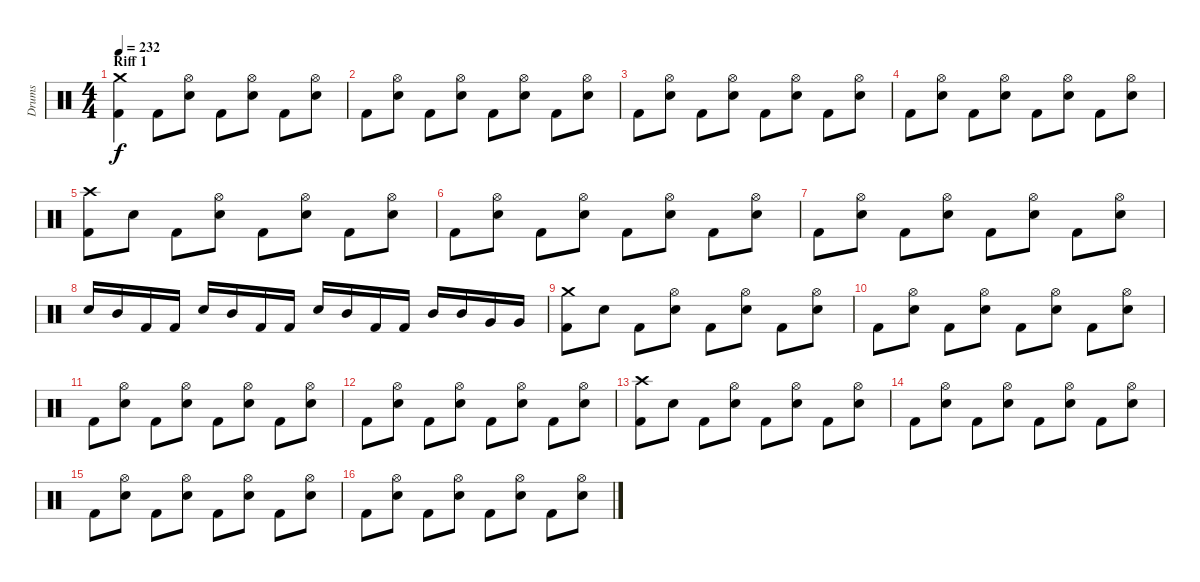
\track ("Drums" "Drums") {instrument percussion}
\staff {score}
\articulation defaults
\ts (4 4)
\section ("" "Riff 1")
\tempo 232
\clef neutral
\ks c
("Kick (hit) 2" "Crash medium (hit)").4{dy f} "Kick (hit) 2".8 ("Electric Snare (hit)" "Hi-Hat (open)").8 "Kick (hit) 2".8 ("Electric Snare (hit)" "Hi-Hat (open)").8 "Kick (hit) 2".8 ("Electric Snare (hit)" "Hi-Hat (open)").8 |
"Kick (hit) 2".8 ("Electric Snare (hit)" "Hi-Hat (open)").8 "Kick (hit) 2".8 ("Electric Snare (hit)" "Hi-Hat (open)").8 "Kick (hit) 2".8 ("Electric Snare (hit)" "Hi-Hat (open)").8 "Kick (hit) 2".8 ("Electric Snare (hit)" "Hi-Hat (open)").8 |
"Kick (hit) 2".8 ("Electric Snare (hit)" "Hi-Hat (open)").8 "Kick (hit) 2".8 ("Electric Snare (hit)" "Hi-Hat (open)").8 "Kick (hit) 2".8 ("Electric Snare (hit)" "Hi-Hat (open)").8 "Kick (hit) 2".8 ("Electric Snare (hit)" "Hi-Hat (open)").8 |
"Kick (hit) 2".8 ("Electric Snare (hit)" "Hi-Hat (open)").8 "Kick (hit) 2".8 ("Electric Snare (hit)" "Hi-Hat (open)").8 "Kick (hit) 2".8 ("Electric Snare (hit)" "Hi-Hat (open)").8 "Kick (hit) 2".8 ("Electric Snare (hit)" "Hi-Hat (open)").8 |
("Kick (hit) 2" "Crash high (hit)").8 "Electric Snare (hit)".8 "Kick (hit) 2".8 ("Electric Snare (hit)" "Hi-Hat (open)").8 "Kick (hit) 2".8 ("Electric Snare (hit)" "Hi-Hat (open)").8 "Kick (hit) 2".8 ("Electric Snare (hit)" "Hi-Hat (open)").8 |
"Kick (hit) 2".8 ("Electric Snare (hit)" "Hi-Hat (open)").8 "Kick (hit) 2".8 ("Electric Snare (hit)" "Hi-Hat (open)").8 "Kick (hit) 2".8 ("Electric Snare (hit)" "Hi-Hat (open)").8 "Kick (hit) 2".8 ("Electric Snare (hit)" "Hi-Hat (open)").8 |
"Kick (hit) 2".8 ("Electric Snare (hit)" "Hi-Hat (open)").8 "Kick (hit) 2".8 ("Electric Snare (hit)" "Hi-Hat (open)").8 "Kick (hit) 2".8 ("Electric Snare (hit)" "Hi-Hat (open)").8 "Kick (hit) 2".8 ("Electric Snare (hit)" "Hi-Hat (open)").8 |
"Electric Snare (hit)".16 "Mid Tom (hit)".16 "Kick (hit) 2".16 "Kick (hit) 2".16 "Electric Snare (hit)".16 "Mid Tom (hit)".16 "Kick (hit) 2".16 "Kick (hit) 2".16 "Electric Snare (hit)".16 "Mid Tom (hit)".16 "Kick (hit) 2".16 "Kick (hit) 2".16 "Mid Tom (hit)".16 "Mid Tom (hit)".16 "Very Low Tom (hit)".16 "Very Low Tom (hit)".16 |
("Kick (hit) 2" "Crash medium (hit)").8 "Electric Snare (hit)".8 "Kick (hit) 2".8 ("Electric Snare (hit)" "Hi-Hat (open)").8 "Kick (hit) 2".8 ("Electric Snare (hit)" "Hi-Hat (open)").8 "Kick (hit) 2".8 ("Electric Snare (hit)" "Hi-Hat (open)").8 |
"Kick (hit) 2".8 ("Electric Snare (hit)" "Hi-Hat (open)").8 "Kick (hit) 2".8 ("Electric Snare (hit)" "Hi-Hat (open)").8 "Kick (hit) 2".8 ("Electric Snare (hit)" "Hi-Hat (open)").8 "Kick (hit) 2".8 ("Electric Snare (hit)" "Hi-Hat (open)").8 |
"Kick (hit) 2".8 ("Electric Snare (hit)" "Hi-Hat (open)").8 "Kick (hit) 2".8 ("Electric Snare (hit)" "Hi-Hat (open)").8 "Kick (hit) 2".8 ("Electric Snare (hit)" "Hi-Hat (open)").8 "Kick (hit) 2".8 ("Electric Snare (hit)" "Hi-Hat (open)").8 |
"Kick (hit) 2".8 ("Electric Snare (hit)" "Hi-Hat (open)").8 "Kick (hit) 2".8 ("Electric Snare (hit)" "Hi-Hat (open)").8 "Kick (hit) 2".8 ("Electric Snare (hit)" "Hi-Hat (open)").8 "Kick (hit) 2".8 ("Electric Snare (hit)" "Hi-Hat (open)").8 |
("Kick (hit) 2" "Crash high (hit)").8 "Electric Snare (hit)".8 "Kick (hit) 2".8 ("Electric Snare (hit)" "Hi-Hat (open)").8 "Kick (hit) 2".8 ("Electric Snare (hit)" "Hi-Hat (open)").8 "Kick (hit) 2".8 ("Electric Snare (hit)" "Hi-Hat (open)").8 |
"Kick (hit) 2".8 ("Electric Snare (hit)" "Hi-Hat (open)").8 "Kick (hit) 2".8 ("Electric Snare (hit)" "Hi-Hat (open)").8 "Kick (hit) 2".8 ("Electric Snare (hit)" "Hi-Hat (open)").8 "Kick (hit) 2".8 ("Electric Snare (hit)" "Hi-Hat (open)").8 |
"Kick (hit) 2".8 ("Electric Snare (hit)" "Hi-Hat (open)").8 "Kick (hit) 2".8 ("Electric Snare (hit)" "Hi-Hat (open)").8 "Kick (hit) 2".8 ("Electric Snare (hit)" "Hi-Hat (open)").8 "Kick (hit) 2".8 ("Electric Snare (hit)" "Hi-Hat (open)").8 |
"Kick (hit) 2".8 ("Electric Snare (hit)" "Hi-Hat (open)").8 "Kick (hit) 2".8 ("Electric Snare (hit)" "Hi-Hat (open)").8 "Kick (hit) 2".8 ("Electric Snare (hit)" "Hi-Hat (open)").8 "Kick (hit) 2".8 ("Electric Snare (hit)" "Hi-Hat (open)").8
